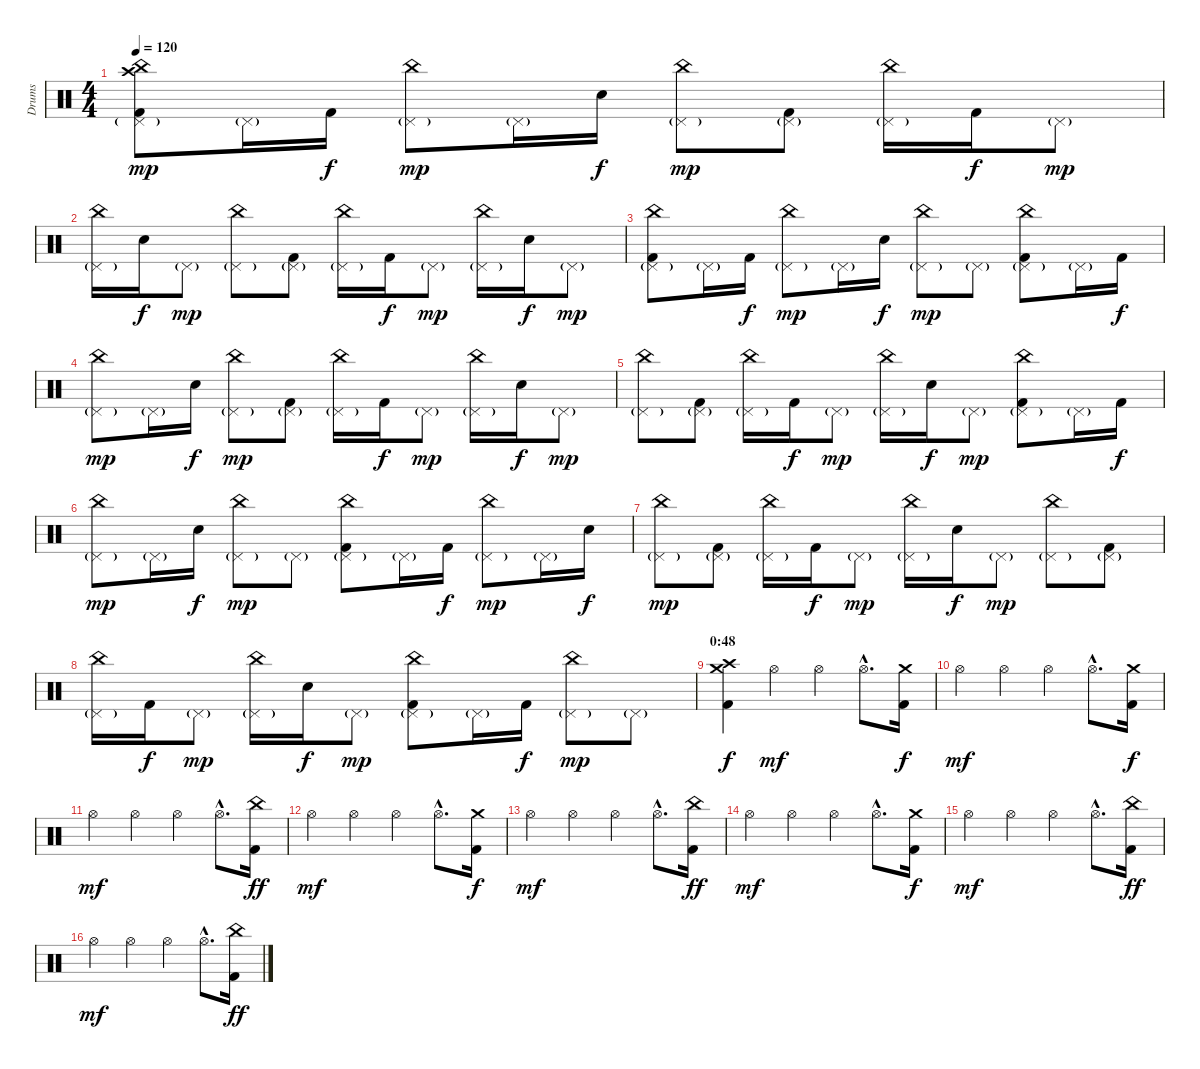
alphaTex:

\track ("Drums" "Drums") {instrument percussion}
\staff {score}
\articulation defaults
\ts (4 4)
\tempo 120
\clef neutral
\ks c
("Crash high (hit)" "China (hit)" "Pedal Hi-Hat (hit)"{g} "Kick (hit) 2").8{dy mp} "Pedal Hi-Hat (hit)"{g}.16 "Kick (hit) 2".16{dy f} ("China (hit)" "Pedal Hi-Hat (hit)"{g}).8{dy mp} "Pedal Hi-Hat (hit)"{g}.16 "Electric Snare (hit)".16{dy f} ("China (hit)" "Pedal Hi-Hat (hit)"{g}).8{dy mp} ("Pedal Hi-Hat (hit)"{g} "Kick (hit) 2").8 ("China (hit)" "Pedal Hi-Hat (hit)"{g}).16 "Kick (hit) 2".16{dy f} "Pedal Hi-Hat (hit)"{g}.8{dy mp} |
("China (hit)" "Pedal Hi-Hat (hit)"{g}).16 "Electric Snare (hit)".16{dy f} "Pedal Hi-Hat (hit)"{g}.8{dy mp} ("China (hit)" "Pedal Hi-Hat (hit)"{g}).8 ("Pedal Hi-Hat (hit)"{g} "Kick (hit) 2").8 ("China (hit)" "Pedal Hi-Hat (hit)"{g}).16 "Kick (hit) 2".16{dy f} "Pedal Hi-Hat (hit)"{g}.8{dy mp} ("China (hit)" "Pedal Hi-Hat (hit)"{g}).16 "Electric Snare (hit)".16{dy f} "Pedal Hi-Hat (hit)"{g}.8{dy mp} |
("China (hit)" "Pedal Hi-Hat (hit)"{g} "Kick (hit) 2").8 "Pedal Hi-Hat (hit)"{g}.16 "Kick (hit) 2".16{dy f} ("China (hit)" "Pedal Hi-Hat (hit)"{g}).8{dy mp} "Pedal Hi-Hat (hit)"{g}.16 "Electric Snare (hit)".16{dy f} ("China (hit)" "Pedal Hi-Hat (hit)"{g}).8{dy mp} "Pedal Hi-Hat (hit)"{g}.8 ("China (hit)" "Pedal Hi-Hat (hit)"{g} "Kick (hit) 2").8 "Pedal Hi-Hat (hit)"{g}.16 "Kick (hit) 2".16{dy f} |
("China (hit)" "Pedal Hi-Hat (hit)"{g}).8{dy mp} "Pedal Hi-Hat (hit)"{g}.16 "Electric Snare (hit)".16{dy f} ("China (hit)" "Pedal Hi-Hat (hit)"{g}).8{dy mp} ("Pedal Hi-Hat (hit)"{g} "Kick (hit) 2").8 ("China (hit)" "Pedal Hi-Hat (hit)"{g}).16 "Kick (hit) 2".16{dy f} "Pedal Hi-Hat (hit)"{g}.8{dy mp} ("China (hit)" "Pedal Hi-Hat (hit)"{g}).16 "Electric Snare (hit)".16{dy f} "Pedal Hi-Hat (hit)"{g}.8{dy mp} |
("China (hit)" "Pedal Hi-Hat (hit)"{g}).8 ("Pedal Hi-Hat (hit)"{g} "Kick (hit) 2").8 ("China (hit)" "Pedal Hi-Hat (hit)"{g}).16 "Kick (hit) 2".16{dy f} "Pedal Hi-Hat (hit)"{g}.8{dy mp} ("China (hit)" "Pedal Hi-Hat (hit)"{g}).16 "Electric Snare (hit)".16{dy f} "Pedal Hi-Hat (hit)"{g}.8{dy mp} ("China (hit)" "Pedal Hi-Hat (hit)"{g} "Kick (hit) 2").8 "Pedal Hi-Hat (hit)"{g}.16 "Kick (hit) 2".16{dy f} |
("China (hit)" "Pedal Hi-Hat (hit)"{g}).8{dy mp} "Pedal Hi-Hat (hit)"{g}.16 "Electric Snare (hit)".16{dy f} ("China (hit)" "Pedal Hi-Hat (hit)"{g}).8{dy mp} "Pedal Hi-Hat (hit)"{g}.8 ("China (hit)" "Pedal Hi-Hat (hit)"{g} "Kick (hit) 2").8 "Pedal Hi-Hat (hit)"{g}.16 "Kick (hit) 2".16{dy f} ("China (hit)" "Pedal Hi-Hat (hit)"{g}).8{dy mp} "Pedal Hi-Hat (hit)"{g}.16 "Electric Snare (hit)".16{dy f} |
("China (hit)" "Pedal Hi-Hat (hit)"{g}).8{dy mp} ("Pedal Hi-Hat (hit)"{g} "Kick (hit) 2").8 ("China (hit)" "Pedal Hi-Hat (hit)"{g}).16 "Kick (hit) 2".16{dy f} "Pedal Hi-Hat (hit)"{g}.8{dy mp} ("China (hit)" "Pedal Hi-Hat (hit)"{g}).16 "Electric Snare (hit)".16{dy f} "Pedal Hi-Hat (hit)"{g}.8{dy mp} ("China (hit)" "Pedal Hi-Hat (hit)"{g}).8 ("Pedal Hi-Hat (hit)"{g} "Kick (hit) 2").8 |
("China (hit)" "Pedal Hi-Hat (hit)"{g}).16 "Kick (hit) 2".16{dy f} "Pedal Hi-Hat (hit)"{g}.8{dy mp} ("China (hit)" "Pedal Hi-Hat (hit)"{g}).16 "Electric Snare (hit)".16{dy f} "Pedal Hi-Hat (hit)"{g}.8{dy mp} ("China (hit)" "Pedal Hi-Hat (hit)"{g} "Kick (hit) 2").8 "Pedal Hi-Hat (hit)"{g}.16 "Kick (hit) 2".16{dy f} ("China (hit)" "Pedal Hi-Hat (hit)"{g}).8{dy mp} "Pedal Hi-Hat (hit)"{g}.8 |
\section ("" "0:48")
("Crash medium (hit)" "Crash high (hit)" "Kick (hit) 2").4{dy f} "Hi-Hat (open)".4{dy mf} "Hi-Hat (open)".4 "Hi-Hat (open)"{hac}.8{d} ("Crash medium (hit)" "Kick (hit) 2").16{dy f} |
"Hi-Hat (open)".4{dy mf} "Hi-Hat (open)".4 "Hi-Hat (open)".4 "Hi-Hat (open)"{hac}.8{d} ("Crash medium (hit)" "Kick (hit) 2").16{dy f} |
"Hi-Hat (open)".4{dy mf} "Hi-Hat (open)".4 "Hi-Hat (open)".4 "Hi-Hat (open)"{hac}.8{d} ("China (hit)" "Kick (hit) 2").16{dy ff} |
"Hi-Hat (open)".4{dy mf} "Hi-Hat (open)".4 "Hi-Hat (open)".4 "Hi-Hat (open)"{hac}.8{d} ("Crash medium (hit)" "Kick (hit) 2").16{dy f} |
"Hi-Hat (open)".4{dy mf} "Hi-Hat (open)".4 "Hi-Hat (open)".4 "Hi-Hat (open)"{hac}.8{d} ("China (hit)" "Kick (hit) 2").16{dy ff} |
"Hi-Hat (open)".4{dy mf} "Hi-Hat (open)".4 "Hi-Hat (open)".4 "Hi-Hat (open)"{hac}.8{d} ("Crash medium (hit)" "Kick (hit) 2").16{dy f} |
"Hi-Hat (open)".4{dy mf} "Hi-Hat (open)".4 "Hi-Hat (open)".4 "Hi-Hat (open)"{hac}.8{d} ("China (hit)" "Kick (hit) 2").16{dy ff} |
"Hi-Hat (open)".4{dy mf} "Hi-Hat (open)".4 "Hi-Hat (open)".4 "Hi-Hat (open)"{hac}.8{d} ("China (hit)" "Kick (hit) 2").16{dy ff}
